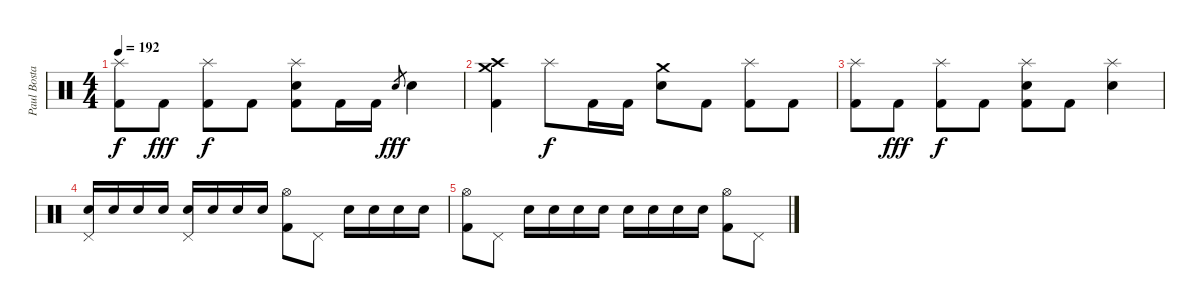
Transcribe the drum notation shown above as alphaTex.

\track ("Paul Bostaph" "Paul Bosta") {instrument percussion}
\staff {score}
\articulation defaults
\ts (4 4)
\tempo 192
\clef neutral
\ks c
("Splash (hit)" "Kick (hit) 2").8{dy f} "Kick (hit) 2".8{dy fff} ("Splash (hit)" "Kick (hit) 2").8{dy f} "Kick (hit) 2".8 ("Splash (hit)" "Electric Snare (hit)" "Kick (hit) 2").8 "Kick (hit) 2".16 "Kick (hit) 2".16 "Electric Snare (hit)".8{gr dy fff} "Electric Snare (hit)".4 |
("Crash high (hit)" "Crash medium (hit)" "Kick (hit) 2").4 "Splash (hit)".8{dy f} "Kick (hit) 2".16 "Kick (hit) 2".16 ("Crash medium (hit)" "Electric Snare (hit)").8 "Kick (hit) 2".8 ("Splash (hit)" "Kick (hit) 2").8 "Kick (hit) 2".8 |
("Splash (hit)" "Kick (hit) 2").8 "Kick (hit) 2".8{dy fff} ("Splash (hit)" "Kick (hit) 2").8{dy f} "Kick (hit) 2".8 ("Splash (hit)" "Electric Snare (hit)" "Kick (hit) 2").8 "Kick (hit) 2".8 ("Splash (hit)" "Electric Snare (hit)").4 |
("Pedal Hi-Hat (hit)" "Electric Snare (hit)").16 "Electric Snare (hit)".16 "Electric Snare (hit)".16 "Electric Snare (hit)".16 ("Pedal Hi-Hat (hit)" "Electric Snare (hit)").16 "Electric Snare (hit)".16 "Electric Snare (hit)".16 "Electric Snare (hit)".16 ("Hi-Hat (open)" "Kick (hit) 2").8 "Pedal Hi-Hat (hit)".8 "Electric Snare (hit)".16 "Electric Snare (hit)".16 "Electric Snare (hit)".16 "Electric Snare (hit)".16 |
("Hi-Hat (open)" "Kick (hit) 2").8 "Pedal Hi-Hat (hit)".8 "Electric Snare (hit)".16 "Electric Snare (hit)".16 "Electric Snare (hit)".16 "Electric Snare (hit)".16 "Electric Snare (hit)".16 "Electric Snare (hit)".16 "Electric Snare (hit)".16 "Electric Snare (hit)".16 ("Hi-Hat (open)" "Kick (hit) 2").8 "Pedal Hi-Hat (hit)".8
